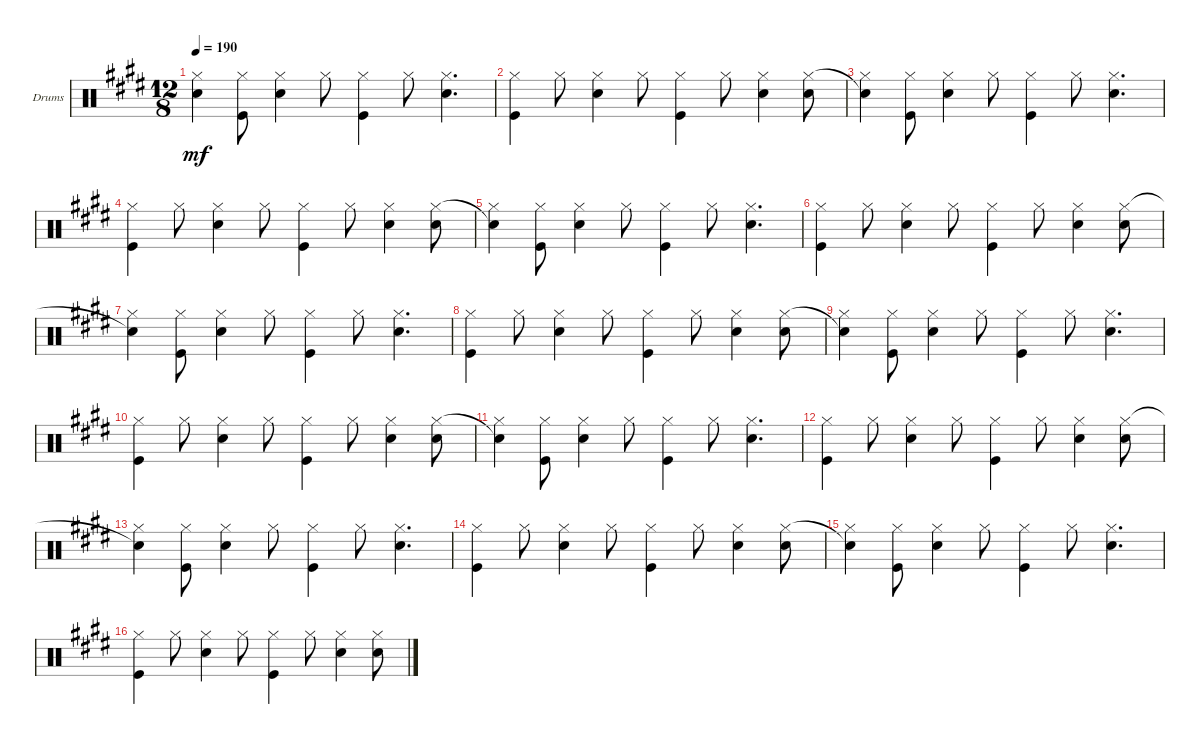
\defaultSystemsLayout 4
\bracketExtendMode groupsimilarinstruments
\firstSystemTrackNameOrientation horizontal
\otherSystemsTrackNameOrientation horizontal
\track ("Drumkit" "Drums") {instrument percussion}
\staff {score}
\articulation defaults
\ts (12 8)
\tempo 190
\clef neutral
\ks c#minor
("Hi-Hat (closed)" "Snare (hit) 2"{t}).4{dy mf} ("Hi-Hat (closed)" "Kick (hit)").8 ("Snare (hit) 2" "Hi-Hat (closed)").4 "Hi-Hat (closed)".8 ("Hi-Hat (closed)" "Kick (hit)").4 "Hi-Hat (closed)".8 ("Hi-Hat (closed)" "Snare (hit) 2").4{d} |
("Hi-Hat (closed)" "Kick (hit)").4 "Hi-Hat (closed)".8 ("Hi-Hat (closed)" "Snare (hit) 2").4 "Hi-Hat (closed)".8 ("Hi-Hat (closed)" "Kick (hit)").4 "Hi-Hat (closed)".8 ("Hi-Hat (closed)" "Snare (hit) 2").4 ("Snare (hit) 2" "Hi-Hat (closed)").8 |
("Hi-Hat (closed)" "Snare (hit) 2"{t}).4 ("Hi-Hat (closed)" "Kick (hit)").8 ("Snare (hit) 2" "Hi-Hat (closed)").4 "Hi-Hat (closed)".8 ("Hi-Hat (closed)" "Kick (hit)").4 "Hi-Hat (closed)".8 ("Hi-Hat (closed)" "Snare (hit) 2").4{d} |
("Hi-Hat (closed)" "Kick (hit)").4 "Hi-Hat (closed)".8 ("Hi-Hat (closed)" "Snare (hit) 2").4 "Hi-Hat (closed)".8 ("Hi-Hat (closed)" "Kick (hit)").4 "Hi-Hat (closed)".8 ("Hi-Hat (closed)" "Snare (hit) 2").4 ("Snare (hit) 2" "Hi-Hat (closed)").8 |
("Hi-Hat (closed)" "Snare (hit) 2"{t}).4 ("Hi-Hat (closed)" "Kick (hit)").8 ("Snare (hit) 2" "Hi-Hat (closed)").4 "Hi-Hat (closed)".8 ("Hi-Hat (closed)" "Kick (hit)").4 "Hi-Hat (closed)".8 ("Hi-Hat (closed)" "Snare (hit) 2").4{d} |
("Hi-Hat (closed)" "Kick (hit)").4 "Hi-Hat (closed)".8 ("Hi-Hat (closed)" "Snare (hit) 2").4 "Hi-Hat (closed)".8 ("Hi-Hat (closed)" "Kick (hit)").4 "Hi-Hat (closed)".8 ("Hi-Hat (closed)" "Snare (hit) 2").4 ("Snare (hit) 2" "Hi-Hat (closed)").8 |
("Hi-Hat (closed)" "Snare (hit) 2"{t}).4 ("Hi-Hat (closed)" "Kick (hit)").8 ("Snare (hit) 2" "Hi-Hat (closed)").4 "Hi-Hat (closed)".8 ("Hi-Hat (closed)" "Kick (hit)").4 "Hi-Hat (closed)".8 ("Hi-Hat (closed)" "Snare (hit) 2").4{d} |
("Hi-Hat (closed)" "Kick (hit)").4 "Hi-Hat (closed)".8 ("Hi-Hat (closed)" "Snare (hit) 2").4 "Hi-Hat (closed)".8 ("Hi-Hat (closed)" "Kick (hit)").4 "Hi-Hat (closed)".8 ("Hi-Hat (closed)" "Snare (hit) 2").4 ("Snare (hit) 2" "Hi-Hat (closed)").8 |
("Hi-Hat (closed)" "Snare (hit) 2"{t}).4 ("Hi-Hat (closed)" "Kick (hit)").8 ("Snare (hit) 2" "Hi-Hat (closed)").4 "Hi-Hat (closed)".8 ("Hi-Hat (closed)" "Kick (hit)").4 "Hi-Hat (closed)".8 ("Hi-Hat (closed)" "Snare (hit) 2").4{d} |
("Hi-Hat (closed)" "Kick (hit)").4 "Hi-Hat (closed)".8 ("Hi-Hat (closed)" "Snare (hit) 2").4 "Hi-Hat (closed)".8 ("Hi-Hat (closed)" "Kick (hit)").4 "Hi-Hat (closed)".8 ("Hi-Hat (closed)" "Snare (hit) 2").4 ("Snare (hit) 2" "Hi-Hat (closed)").8 |
("Hi-Hat (closed)" "Snare (hit) 2"{t}).4 ("Hi-Hat (closed)" "Kick (hit)").8 ("Snare (hit) 2" "Hi-Hat (closed)").4 "Hi-Hat (closed)".8 ("Hi-Hat (closed)" "Kick (hit)").4 "Hi-Hat (closed)".8 ("Hi-Hat (closed)" "Snare (hit) 2").4{d} |
("Hi-Hat (closed)" "Kick (hit)").4 "Hi-Hat (closed)".8 ("Hi-Hat (closed)" "Snare (hit) 2").4 "Hi-Hat (closed)".8 ("Hi-Hat (closed)" "Kick (hit)").4 "Hi-Hat (closed)".8 ("Hi-Hat (closed)" "Snare (hit) 2").4 ("Snare (hit) 2" "Hi-Hat (closed)").8 |
("Hi-Hat (closed)" "Snare (hit) 2"{t}).4 ("Hi-Hat (closed)" "Kick (hit)").8 ("Snare (hit) 2" "Hi-Hat (closed)").4 "Hi-Hat (closed)".8 ("Hi-Hat (closed)" "Kick (hit)").4 "Hi-Hat (closed)".8 ("Hi-Hat (closed)" "Snare (hit) 2").4{d} |
("Hi-Hat (closed)" "Kick (hit)").4 "Hi-Hat (closed)".8 ("Hi-Hat (closed)" "Snare (hit) 2").4 "Hi-Hat (closed)".8 ("Hi-Hat (closed)" "Kick (hit)").4 "Hi-Hat (closed)".8 ("Hi-Hat (closed)" "Snare (hit) 2").4 ("Snare (hit) 2" "Hi-Hat (closed)").8 |
("Hi-Hat (closed)" "Snare (hit) 2"{t}).4 ("Hi-Hat (closed)" "Kick (hit)").8 ("Snare (hit) 2" "Hi-Hat (closed)").4 "Hi-Hat (closed)".8 ("Hi-Hat (closed)" "Kick (hit)").4 "Hi-Hat (closed)".8 ("Hi-Hat (closed)" "Snare (hit) 2").4{d} |
("Hi-Hat (closed)" "Kick (hit)").4 "Hi-Hat (closed)".8 ("Hi-Hat (closed)" "Snare (hit) 2").4 "Hi-Hat (closed)".8 ("Hi-Hat (closed)" "Kick (hit)").4 "Hi-Hat (closed)".8 ("Hi-Hat (closed)" "Snare (hit) 2").4 ("Snare (hit) 2" "Hi-Hat (closed)").8
